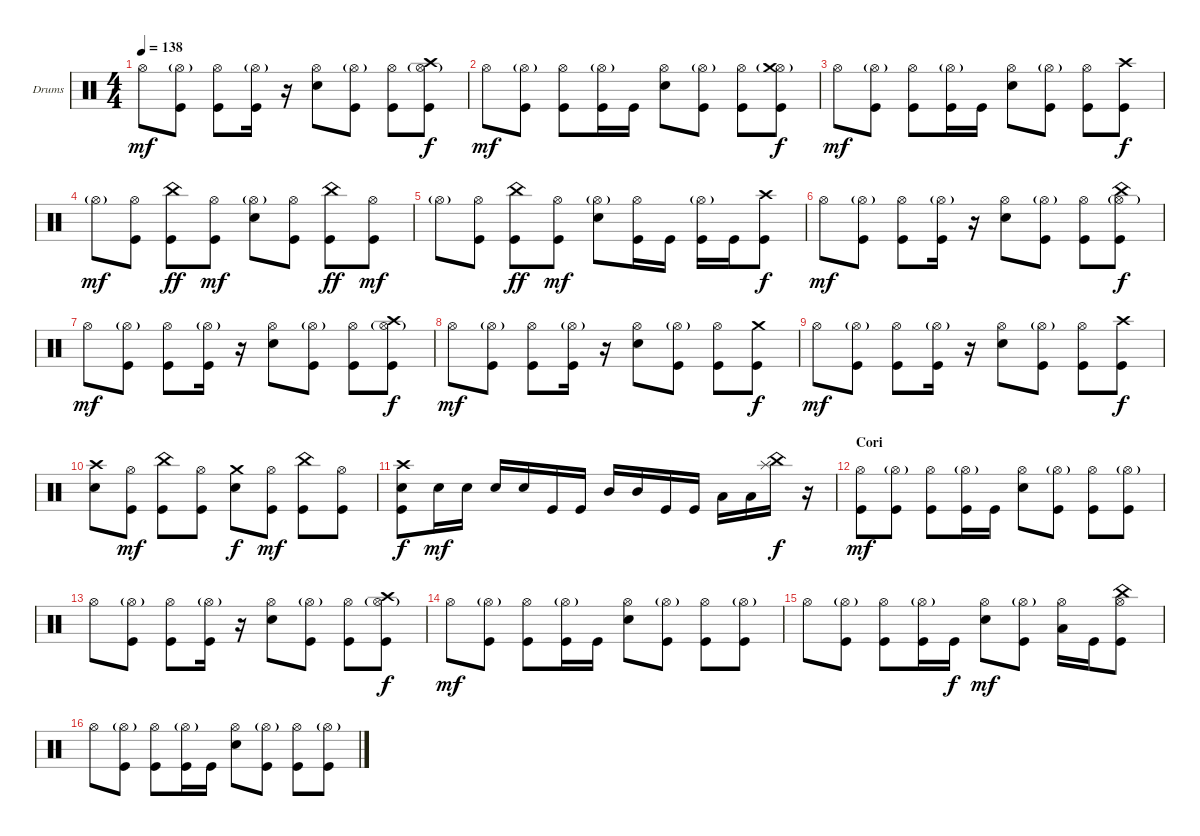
\defaultSystemsLayout 4
\bracketExtendMode groupsimilarinstruments
\firstSystemTrackNameOrientation horizontal
\otherSystemsTrackNameOrientation horizontal
\track ("Valverde Drums" "Drums") {instrument percussion}
\staff {score}
\articulation defaults
\ts (4 4)
\tempo 138
\clef neutral
\ks c "Hi-Hat (open)".8{dy mf}
("Hi-Hat (open)"{g} "Kick (hit)").8 ("Hi-Hat (open)" "Kick (hit)").8 ("Hi-Hat (open)"{g} "Kick (hit)").16 r.16 ("Hi-Hat (open)" "Snare (hit) 2").8 ("Hi-Hat (open)"{g} "Kick (hit)").8 ("Hi-Hat (open)" "Kick (hit)").8 ("Hi-Hat (open)"{g} "Kick (hit)" "Crash high (hit)").8{dy f} |
"Hi-Hat (open)".8{dy mf} ("Hi-Hat (open)"{g} "Kick (hit)").8 ("Hi-Hat (open)" "Kick (hit)").8 ("Hi-Hat (open)"{g} "Kick (hit)").16 "Kick (hit)".16 ("Hi-Hat (open)" "Snare (hit) 2").8 ("Hi-Hat (open)"{g} "Kick (hit)").8 ("Hi-Hat (open)" "Kick (hit)").8 ("Hi-Hat (open)"{g} "Kick (hit)" "Crash medium (hit)").8{dy f} |
"Hi-Hat (open)".8{dy mf} ("Hi-Hat (open)"{g} "Kick (hit)").8 ("Hi-Hat (open)" "Kick (hit)").8 ("Hi-Hat (open)"{g} "Kick (hit)").16 "Kick (hit)".16 ("Hi-Hat (open)" "Snare (hit) 2").8 ("Hi-Hat (open)"{g} "Kick (hit)").8 ("Hi-Hat (open)" "Kick (hit)").8 ("Kick (hit)" "Crash high (hit)").8{dy f} |
"Hi-Hat (open)"{g}.8{dy mf} ("Kick (hit)" "Hi-Hat (open)").8 ("China (hit)" "Kick (hit)").8{dy ff} ("Hi-Hat (open)" "Kick (hit)").8{dy mf} ("Hi-Hat (open)"{g} "Snare (hit) 2").8 ("Kick (hit)" "Hi-Hat (open)").8 ("China (hit)" "Kick (hit)").8{dy ff} ("Kick (hit)" "Hi-Hat (open)").8{dy mf} |
"Hi-Hat (open)"{g}.8 ("Kick (hit)" "Hi-Hat (open)").8 ("China (hit)" "Kick (hit)").8{dy ff} ("Hi-Hat (open)" "Kick (hit)").8{dy mf} ("Hi-Hat (open)"{g} "Snare (hit) 2").8 ("Kick (hit)" "Hi-Hat (open)").16 "Kick (hit)".16 ("Kick (hit)" "Hi-Hat (open)"{g}).16 "Kick (hit)".16 ("Kick (hit)" "Crash high (hit)").8{dy f} |
"Hi-Hat (open)".8{dy mf} ("Hi-Hat (open)"{g} "Kick (hit)").8 ("Hi-Hat (open)" "Kick (hit)").8 ("Hi-Hat (open)"{g} "Kick (hit)").16 r.16 ("Hi-Hat (open)" "Snare (hit) 2").8 ("Hi-Hat (open)"{g} "Kick (hit)").8 ("Hi-Hat (open)" "Kick (hit)").8 ("Hi-Hat (open)"{g} "Kick (hit)" "China (hit)").8{dy f} |
"Hi-Hat (open)".8{dy mf} ("Hi-Hat (open)"{g} "Kick (hit)").8 ("Hi-Hat (open)" "Kick (hit)").8 ("Hi-Hat (open)"{g} "Kick (hit)").16 r.16 ("Hi-Hat (open)" "Snare (hit) 2").8 ("Hi-Hat (open)"{g} "Kick (hit)").8 ("Hi-Hat (open)" "Kick (hit)").8 ("Hi-Hat (open)"{g} "Kick (hit)" "Crash high (hit)").8{dy f} |
"Hi-Hat (open)".8{dy mf} ("Hi-Hat (open)"{g} "Kick (hit)").8 ("Hi-Hat (open)" "Kick (hit)").8 ("Hi-Hat (open)"{g} "Kick (hit)").16 r.16 ("Hi-Hat (open)" "Snare (hit) 2").8 ("Hi-Hat (open)"{g} "Kick (hit)").8 ("Hi-Hat (open)" "Kick (hit)").8 ("Kick (hit)" "Crash medium (hit)").8{dy f} |
"Hi-Hat (open)".8{dy mf} ("Hi-Hat (open)"{g} "Kick (hit)").8 ("Hi-Hat (open)" "Kick (hit)").8 ("Hi-Hat (open)"{g} "Kick (hit)").16 r.16 ("Hi-Hat (open)" "Snare (hit) 2").8 ("Hi-Hat (open)"{g} "Kick (hit)").8 ("Hi-Hat (open)" "Kick (hit)").8 ("Kick (hit)" "Crash high (hit)").8{dy f} |
("Snare (hit) 2" "Crash high (hit)").8 ("Kick (hit)" "Hi-Hat (open)").8{dy mf} ("China (hit)" "Kick (hit)").8 ("Hi-Hat (open)" "Kick (hit)").8 ("Snare (hit) 2" "Crash medium (hit)").8{dy f} ("Kick (hit)" "Hi-Hat (open)").8{dy mf} ("China (hit)" "Kick (hit)").8 ("Kick (hit)" "Hi-Hat (open)").8 |
("Snare (hit) 2" "Crash high (hit)" "Kick (hit)").8{dy f} "Snare (hit) 2".16{dy mf} "Snare (hit) 2".16 "Snare (hit) 2".16 "Snare (hit) 2".16 "Kick (hit)".16 "Kick (hit)".16 "Mid Tom (hit)".16 "Mid Tom (hit)".16 "Kick (hit)".16 "Kick (hit)".16 "Low Tom (hit)".16 "Low Tom (hit)".16 ("Splash (hit)" "China (hit)").16{dy f} r.16 |
\section ("" "Cori")
("Hi-Hat (open)" "Kick (hit)").8{dy mf} ("Hi-Hat (open)"{g} "Kick (hit)").8 ("Hi-Hat (open)" "Kick (hit)").8 ("Hi-Hat (open)"{g} "Kick (hit)").16 "Kick (hit)".16 ("Hi-Hat (open)" "Snare (hit) 2").8 ("Hi-Hat (open)"{g} "Kick (hit)").8 ("Hi-Hat (open)" "Kick (hit)").8 ("Hi-Hat (open)"{g} "Kick (hit)").8 |
"Hi-Hat (open)".8 ("Hi-Hat (open)"{g} "Kick (hit)").8 ("Hi-Hat (open)" "Kick (hit)").8 ("Hi-Hat (open)"{g} "Kick (hit)").16 r.16 ("Hi-Hat (open)" "Snare (hit) 2").8 ("Hi-Hat (open)"{g} "Kick (hit)").8 ("Hi-Hat (open)" "Kick (hit)").8 ("Hi-Hat (open)"{g} "Kick (hit)" "Crash high (hit)").8{dy f} |
"Hi-Hat (open)".8{dy mf} ("Hi-Hat (open)"{g} "Kick (hit)").8 ("Hi-Hat (open)" "Kick (hit)").8 ("Hi-Hat (open)"{g} "Kick (hit)").16 "Kick (hit)".16 ("Hi-Hat (open)" "Snare (hit) 2").8 ("Hi-Hat (open)"{g} "Kick (hit)").8 ("Hi-Hat (open)" "Kick (hit)").8 ("Hi-Hat (open)"{g} "Kick (hit)").8 |
"Hi-Hat (open)".8 ("Hi-Hat (open)"{g} "Kick (hit)").8 ("Hi-Hat (open)" "Kick (hit)").8 ("Hi-Hat (open)"{g} "Kick (hit)").16 "Kick (hit)".16{dy f} ("Hi-Hat (open)" "Snare (hit) 2").8{dy mf} ("Hi-Hat (open)"{g} "Kick (hit)").8 ("Low Tom (hit)" "Hi-Hat (open)").16 "Kick (hit)".16 ("Hi-Hat (open)" "China (hit)" "Kick (hit)").8 |
"Hi-Hat (open)".8 ("Hi-Hat (open)"{g} "Kick (hit)").8 ("Hi-Hat (open)" "Kick (hit)").8 ("Hi-Hat (open)"{g} "Kick (hit)").16 "Kick (hit)".16 ("Hi-Hat (open)" "Snare (hit) 2").8 ("Hi-Hat (open)"{g} "Kick (hit)").8 ("Hi-Hat (open)" "Kick (hit)").8 ("Hi-Hat (open)"{g} "Kick (hit)").8
